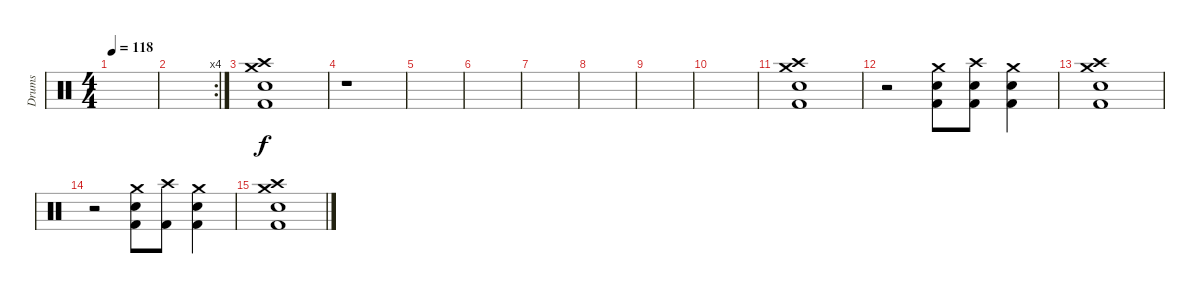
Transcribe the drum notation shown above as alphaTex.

\track ("Drums" "Drums") {instrument percussion}
\staff {score}
\articulation defaults
\ts (4 4)
\tempo 118
\clef neutral
\ks c
|
\rc 4
|
("Crash medium (hit)" "Crash high (hit)" "Electric Snare (hit)" "Kick (hit) 2").1 |
r.1 |
|
|
|
|
|
|
("Crash medium (hit)" "Crash high (hit)" "Electric Snare (hit)" "Kick (hit) 2").1 |
r.2 ("Crash medium (hit)" "Electric Snare (hit)" "Kick (hit) 2").8 ("Crash high (hit)" "Electric Snare (hit)" "Kick (hit) 2").8 ("Crash medium (hit)" "Electric Snare (hit)" "Kick (hit) 2").4 |
("Crash medium (hit)" "Crash high (hit)" "Electric Snare (hit)" "Kick (hit) 2").1 |
r.2 ("Crash medium (hit)" "Electric Snare (hit)" "Kick (hit) 2").8 ("Crash high (hit)" "Kick (hit) 2").8 ("Crash medium (hit)" "Electric Snare (hit)" "Kick (hit) 2").4 |
("Crash medium (hit)" "Crash high (hit)" "Electric Snare (hit)" "Kick (hit) 2").1
